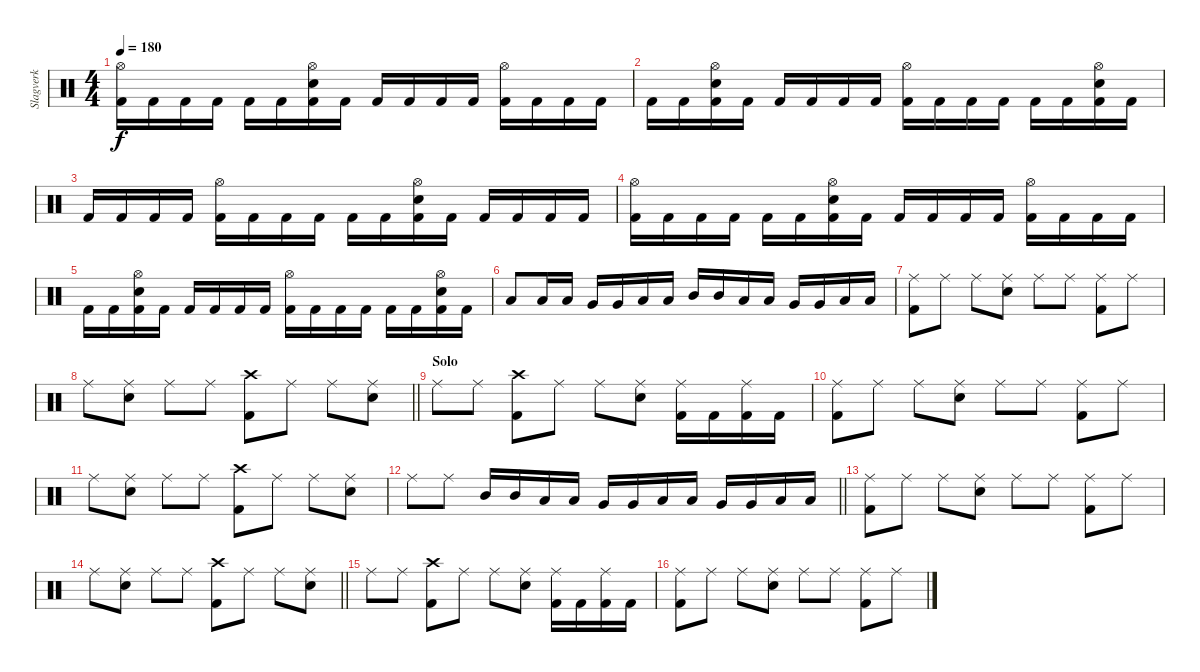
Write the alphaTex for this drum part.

\track ("Slagverk" "Slagverk") {instrument percussion}
\staff {score}
\articulation defaults
\ts (4 4)
\tempo 180
\clef neutral
\ks c
("Hi-Hat (open)" "Kick (hit) 2").16{dy f} "Kick (hit) 2".16 "Kick (hit) 2".16 "Kick (hit) 2".16 "Kick (hit) 2".16 "Kick (hit) 2".16 ("Hi-Hat (open)" "Electric Snare (hit)" "Kick (hit) 2").16 "Kick (hit) 2".16 "Kick (hit) 2".16 "Kick (hit) 2".16 "Kick (hit) 2".16 "Kick (hit) 2".16 ("Hi-Hat (open)" "Kick (hit) 2").16 "Kick (hit) 2".16 "Kick (hit) 2".16 "Kick (hit) 2".16 |
"Kick (hit) 2".16 "Kick (hit) 2".16 ("Hi-Hat (open)" "Electric Snare (hit)" "Kick (hit) 2").16 "Kick (hit) 2".16 "Kick (hit) 2".16 "Kick (hit) 2".16 "Kick (hit) 2".16 "Kick (hit) 2".16 ("Hi-Hat (open)" "Kick (hit) 2").16 "Kick (hit) 2".16 "Kick (hit) 2".16 "Kick (hit) 2".16 "Kick (hit) 2".16 "Kick (hit) 2".16 ("Hi-Hat (open)" "Electric Snare (hit)" "Kick (hit) 2").16 "Kick (hit) 2".16 |
"Kick (hit) 2".16 "Kick (hit) 2".16 "Kick (hit) 2".16 "Kick (hit) 2".16 ("Hi-Hat (open)" "Kick (hit) 2").16 "Kick (hit) 2".16 "Kick (hit) 2".16 "Kick (hit) 2".16 "Kick (hit) 2".16 "Kick (hit) 2".16 ("Hi-Hat (open)" "Electric Snare (hit)" "Kick (hit) 2").16 "Kick (hit) 2".16 "Kick (hit) 2".16 "Kick (hit) 2".16 "Kick (hit) 2".16 "Kick (hit) 2".16 |
("Hi-Hat (open)" "Kick (hit) 2").16 "Kick (hit) 2".16 "Kick (hit) 2".16 "Kick (hit) 2".16 "Kick (hit) 2".16 "Kick (hit) 2".16 ("Hi-Hat (open)" "Electric Snare (hit)" "Kick (hit) 2").16 "Kick (hit) 2".16 "Kick (hit) 2".16 "Kick (hit) 2".16 "Kick (hit) 2".16 "Kick (hit) 2".16 ("Hi-Hat (open)" "Kick (hit) 2").16 "Kick (hit) 2".16 "Kick (hit) 2".16 "Kick (hit) 2".16 |
"Kick (hit) 2".16 "Kick (hit) 2".16 ("Hi-Hat (open)" "Electric Snare (hit)" "Kick (hit) 2").16 "Kick (hit) 2".16 "Kick (hit) 2".16 "Kick (hit) 2".16 "Kick (hit) 2".16 "Kick (hit) 2".16 ("Hi-Hat (open)" "Kick (hit) 2").16 "Kick (hit) 2".16 "Kick (hit) 2".16 "Kick (hit) 2".16 "Kick (hit) 2".16 "Kick (hit) 2".16 ("Hi-Hat (open)" "Electric Snare (hit)" "Kick (hit) 2").16 "Kick (hit) 2".16 |
"Low Tom (hit)".8 "Low Tom (hit)".16 "Low Tom (hit)".16 "Very Low Tom (hit)".16 "Very Low Tom (hit)".16 "Low Floor Tom (hit)".16 "Low Floor Tom (hit)".16 "Mid Tom (hit)".16 "Mid Tom (hit)".16 "Low Tom (hit)".16 "Low Tom (hit)".16 "Very Low Tom (hit)".16 "Very Low Tom (hit)".16 "Low Floor Tom (hit)".16 "Low Floor Tom (hit)".16 |
("Ride (middle)" "Kick (hit) 2").8 "Ride (middle)".8 "Ride (middle)".8 ("Ride (middle)" "Electric Snare (hit)").8 "Ride (middle)".8 "Ride (middle)".8 ("Ride (middle)" "Kick (hit) 2").8 "Ride (middle)".8 |
\barLineRight lightlight "Ride (middle)".8
("Ride (middle)" "Electric Snare (hit)").8 "Ride (middle)".8 "Ride (middle)".8 ("Crash high (hit)" "Kick (hit) 2").8 "Ride (middle)".8 "Ride (middle)".8 ("Ride (middle)" "Electric Snare (hit)").8 |
\section ("" "Solo")
"Ride (middle)".8 "Ride (middle)".8 ("Crash high (hit)" "Kick (hit) 2").8 "Ride (middle)".8 "Ride (middle)".8 ("Ride (middle)" "Electric Snare (hit)").8 ("Ride (middle)" "Kick (hit) 2").16 "Kick (hit) 2".16 ("Ride (middle)" "Kick (hit) 2").16 "Kick (hit) 2".16 |
("Ride (middle)" "Kick (hit) 2").8 "Ride (middle)".8 "Ride (middle)".8 ("Ride (middle)" "Electric Snare (hit)").8 "Ride (middle)".8 "Ride (middle)".8 ("Ride (middle)" "Kick (hit) 2").8 "Ride (middle)".8 |
"Ride (middle)".8 ("Ride (middle)" "Electric Snare (hit)").8 "Ride (middle)".8 "Ride (middle)".8 ("Crash high (hit)" "Kick (hit) 2").8 "Ride (middle)".8 "Ride (middle)".8 ("Ride (middle)" "Electric Snare (hit)").8 |
\barLineRight lightlight "Ride (middle)".8 "Ride (middle)".8 "Mid Tom (hit)".16 "Mid Tom (hit)".16 "Low Tom (hit)".16 "Low Tom (hit)".16 "Very Low Tom (hit)".16 "Very Low Tom (hit)".16 "Low Tom (hit)".16 "Low Tom (hit)".16 "Very Low Tom (hit)".16 "Very Low Tom (hit)".16 "Low Floor Tom (hit)".16 "Low Floor Tom (hit)".16
|
("Ride (middle)" "Kick (hit) 2").8 "Ride (middle)".8 "Ride (middle)".8 ("Ride (middle)" "Electric Snare (hit)").8 "Ride (middle)".8 "Ride (middle)".8 ("Ride (middle)" "Kick (hit) 2").8 "Ride (middle)".8 |
\barLineRight lightlight "Ride (middle)".8
("Ride (middle)" "Electric Snare (hit)").8 "Ride (middle)".8 "Ride (middle)".8 ("Crash high (hit)" "Kick (hit) 2").8 "Ride (middle)".8 "Ride (middle)".8 ("Ride (middle)" "Electric Snare (hit)").8 |
"Ride (middle)".8 "Ride (middle)".8 ("Crash high (hit)" "Kick (hit) 2").8 "Ride (middle)".8 "Ride (middle)".8 ("Ride (middle)" "Electric Snare (hit)").8 ("Ride (middle)" "Kick (hit) 2").16 "Kick (hit) 2".16 ("Ride (middle)" "Kick (hit) 2").16 "Kick (hit) 2".16 |
("Ride (middle)" "Kick (hit) 2").8 "Ride (middle)".8 "Ride (middle)".8 ("Ride (middle)" "Electric Snare (hit)").8 "Ride (middle)".8 "Ride (middle)".8 ("Ride (middle)" "Kick (hit) 2").8 "Ride (middle)".8
